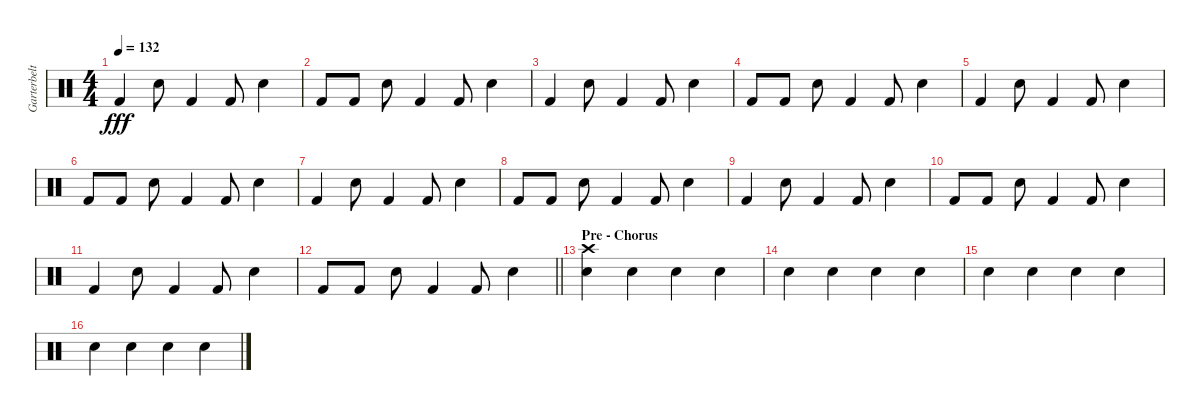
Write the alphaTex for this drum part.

\track ("Garterbelt" "Garterbelt") {instrument percussion}
\staff {score}
\articulation defaults
\ts (4 4)
\tempo 132
\clef neutral
\ks c "Kick (hit) 2".4{dy fff} "Hand Clap (hit)".8 "Kick (hit) 2".4 "Kick (hit) 2".8 "Hand Clap (hit)".4
|
"Kick (hit) 2".8 "Kick (hit) 2".8 "Hand Clap (hit)".8 "Kick (hit) 2".4 "Kick (hit) 2".8 "Hand Clap (hit)".4 |
"Kick (hit) 2".4 "Hand Clap (hit)".8 "Kick (hit) 2".4 "Kick (hit) 2".8 "Hand Clap (hit)".4 |
"Kick (hit) 2".8 "Kick (hit) 2".8 "Hand Clap (hit)".8 "Kick (hit) 2".4 "Kick (hit) 2".8 "Hand Clap (hit)".4 |
"Kick (hit) 2".4 "Hand Clap (hit)".8 "Kick (hit) 2".4 "Kick (hit) 2".8 "Hand Clap (hit)".4 |
"Kick (hit) 2".8 "Kick (hit) 2".8 "Hand Clap (hit)".8 "Kick (hit) 2".4 "Kick (hit) 2".8 "Hand Clap (hit)".4 |
"Kick (hit) 2".4 "Hand Clap (hit)".8 "Kick (hit) 2".4 "Kick (hit) 2".8 "Hand Clap (hit)".4 |
"Kick (hit) 2".8 "Kick (hit) 2".8 "Hand Clap (hit)".8 "Kick (hit) 2".4 "Kick (hit) 2".8 "Hand Clap (hit)".4 |
"Kick (hit) 2".4 "Hand Clap (hit)".8 "Kick (hit) 2".4 "Kick (hit) 2".8 "Hand Clap (hit)".4 |
"Kick (hit) 2".8 "Kick (hit) 2".8 "Hand Clap (hit)".8 "Kick (hit) 2".4 "Kick (hit) 2".8 "Hand Clap (hit)".4 |
"Kick (hit) 2".4 "Hand Clap (hit)".8 "Kick (hit) 2".4 "Kick (hit) 2".8 "Hand Clap (hit)".4 |
\barLineRight lightlight "Kick (hit) 2".8 "Kick (hit) 2".8 "Hand Clap (hit)".8 "Kick (hit) 2".4 "Kick (hit) 2".8 "Hand Clap (hit)".4
|
\section ("" "Pre - Chorus")
("Crash high (hit)" "Hand Clap (hit)").4 "Hand Clap (hit)".4 "Hand Clap (hit)".4 "Hand Clap (hit)".4 |
"Hand Clap (hit)".4 "Hand Clap (hit)".4 "Hand Clap (hit)".4 "Hand Clap (hit)".4 |
"Hand Clap (hit)".4 "Hand Clap (hit)".4 "Hand Clap (hit)".4 "Hand Clap (hit)".4 |
"Hand Clap (hit)".4 "Hand Clap (hit)".4 "Hand Clap (hit)".4 "Hand Clap (hit)".4
